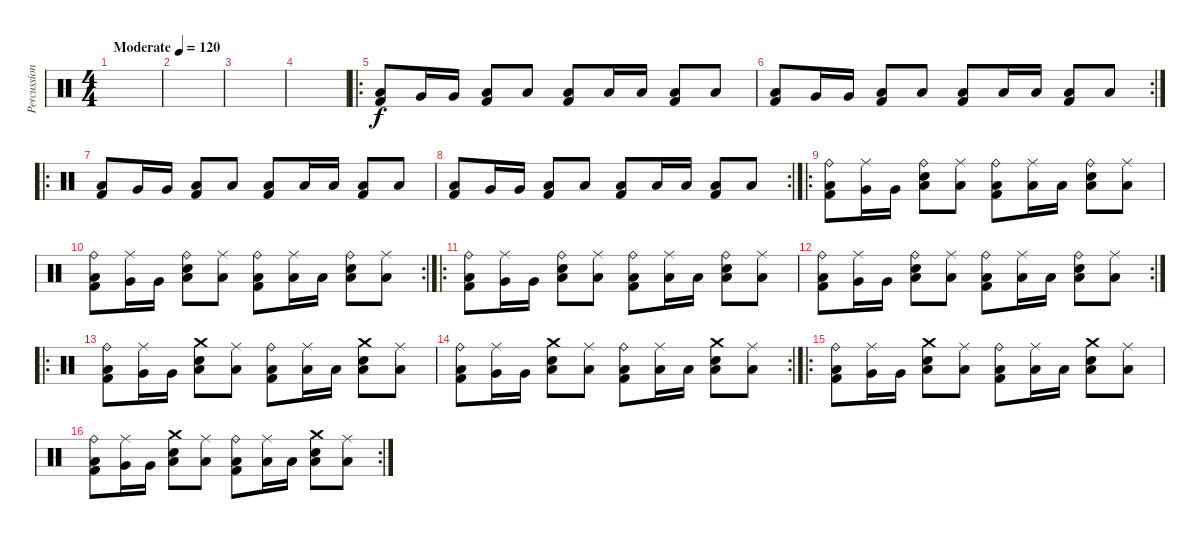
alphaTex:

\track ("Percussion" "Percussion") {instrument percussion}
\staff {score}
\articulation defaults
\ts (4 4)
\tempo (120 "Moderate")
\clef neutral
\ks c
|
|
|
|
\ro
("Low Floor Tom (hit)" "Kick (hit) 2").8 "Very Low Tom (hit)".16 "Very Low Tom (hit)".16 ("Low Floor Tom (hit)" "Kick (hit) 2").8 "Low Floor Tom (hit)".8 ("Low Floor Tom (hit)" "Kick (hit) 2").8 "Low Floor Tom (hit)".16 "Low Floor Tom (hit)".16 ("Low Floor Tom (hit)" "Kick (hit) 2").8 "Low Floor Tom (hit)".8 |
\rc 2
("Low Floor Tom (hit)" "Kick (hit) 2").8 "Very Low Tom (hit)".16 "Very Low Tom (hit)".16 ("Low Floor Tom (hit)" "Kick (hit) 2").8 "Low Floor Tom (hit)".8 ("Low Floor Tom (hit)" "Kick (hit) 2").8 "Low Floor Tom (hit)".16 "Low Floor Tom (hit)".16 ("Low Floor Tom (hit)" "Kick (hit) 2").8 "Low Floor Tom (hit)".8 |
\ro
("Low Floor Tom (hit)" "Kick (hit) 2").8 "Very Low Tom (hit)".16 "Very Low Tom (hit)".16 ("Low Floor Tom (hit)" "Kick (hit) 2").8 "Low Floor Tom (hit)".8 ("Low Floor Tom (hit)" "Kick (hit) 2").8 "Low Floor Tom (hit)".16 "Low Floor Tom (hit)".16 ("Low Floor Tom (hit)" "Kick (hit) 2").8 "Low Floor Tom (hit)".8 |
\rc 2
("Low Floor Tom (hit)" "Kick (hit) 2").8 "Very Low Tom (hit)".16 "Very Low Tom (hit)".16 ("Low Floor Tom (hit)" "Kick (hit) 2").8 "Low Floor Tom (hit)".8 ("Low Floor Tom (hit)" "Kick (hit) 2").8 "Low Floor Tom (hit)".16 "Low Floor Tom (hit)".16 ("Low Floor Tom (hit)" "Kick (hit) 2").8 "Low Floor Tom (hit)".8 |
\ro
("Ride (bell)" "Low Floor Tom (hit)" "Kick (hit) 2").8 ("Very Low Tom (hit)" "Ride (middle)").16 "Very Low Tom (hit)".16 ("Ride (bell)" "Low Floor Tom (hit)" "Snare (hit) 2").8 ("Low Floor Tom (hit)" "Ride (middle)").8 ("Ride (bell)" "Low Floor Tom (hit)" "Kick (hit) 2").8 ("Low Floor Tom (hit)" "Ride (middle)").16 "Low Floor Tom (hit)".16 ("Ride (bell)" "Low Floor Tom (hit)" "Snare (hit) 2").8 ("Low Floor Tom (hit)" "Ride (middle)").8 |
\rc 2
("Ride (bell)" "Low Floor Tom (hit)" "Kick (hit) 2").8 ("Very Low Tom (hit)" "Ride (middle)").16 "Very Low Tom (hit)".16 ("Ride (bell)" "Low Floor Tom (hit)" "Snare (hit) 2").8 ("Low Floor Tom (hit)" "Ride (middle)").8 ("Ride (bell)" "Low Floor Tom (hit)" "Kick (hit) 2").8 ("Low Floor Tom (hit)" "Ride (middle)").16 "Low Floor Tom (hit)".16 ("Ride (bell)" "Low Floor Tom (hit)" "Snare (hit) 2").8 ("Low Floor Tom (hit)" "Ride (middle)").8 |
\ro
("Ride (bell)" "Low Floor Tom (hit)" "Kick (hit) 2").8 ("Very Low Tom (hit)" "Ride (middle)").16 "Very Low Tom (hit)".16 ("Ride (bell)" "Low Floor Tom (hit)" "Snare (hit) 2").8 ("Low Floor Tom (hit)" "Ride (middle)").8 ("Ride (bell)" "Low Floor Tom (hit)" "Kick (hit) 2").8 ("Low Floor Tom (hit)" "Ride (middle)").16 "Low Floor Tom (hit)".16 ("Ride (bell)" "Low Floor Tom (hit)" "Snare (hit) 2").8 ("Low Floor Tom (hit)" "Ride (middle)").8 |
\rc 2
("Ride (bell)" "Low Floor Tom (hit)" "Kick (hit) 2").8 ("Very Low Tom (hit)" "Ride (middle)").16 "Very Low Tom (hit)".16 ("Ride (bell)" "Low Floor Tom (hit)" "Snare (hit) 2").8 ("Low Floor Tom (hit)" "Ride (middle)").8 ("Ride (bell)" "Low Floor Tom (hit)" "Kick (hit) 2").8 ("Low Floor Tom (hit)" "Ride (middle)").16 "Low Floor Tom (hit)".16 ("Ride (bell)" "Low Floor Tom (hit)" "Snare (hit) 2").8 ("Low Floor Tom (hit)" "Ride (middle)").8 |
\ro
("Ride (bell)" "Low Floor Tom (hit)" "Kick (hit) 2").8 ("Very Low Tom (hit)" "Ride (middle)").16 "Very Low Tom (hit)".16 ("Crash medium (hit)" "Low Floor Tom (hit)" "Snare (hit) 2").8 ("Low Floor Tom (hit)" "Ride (middle)").8 ("Ride (bell)" "Low Floor Tom (hit)" "Kick (hit) 2").8 ("Low Floor Tom (hit)" "Ride (middle)").16 "Low Floor Tom (hit)".16 ("Crash medium (hit)" "Low Floor Tom (hit)" "Snare (hit) 2").8 ("Low Floor Tom (hit)" "Ride (middle)").8 |
\rc 2
("Ride (bell)" "Low Floor Tom (hit)" "Kick (hit) 2").8 ("Very Low Tom (hit)" "Ride (middle)").16 "Very Low Tom (hit)".16 ("Crash medium (hit)" "Low Floor Tom (hit)" "Snare (hit) 2").8 ("Low Floor Tom (hit)" "Ride (middle)").8 ("Ride (bell)" "Low Floor Tom (hit)" "Kick (hit) 2").8 ("Low Floor Tom (hit)" "Ride (middle)").16 "Low Floor Tom (hit)".16 ("Crash medium (hit)" "Low Floor Tom (hit)" "Snare (hit) 2").8 ("Low Floor Tom (hit)" "Ride (middle)").8 |
\ro
("Ride (bell)" "Low Floor Tom (hit)" "Kick (hit) 2").8 ("Very Low Tom (hit)" "Ride (middle)").16 "Very Low Tom (hit)".16 ("Crash medium (hit)" "Low Floor Tom (hit)" "Snare (hit) 2").8 ("Low Floor Tom (hit)" "Ride (middle)").8 ("Ride (bell)" "Low Floor Tom (hit)" "Kick (hit) 2").8 ("Low Floor Tom (hit)" "Ride (middle)").16 "Low Floor Tom (hit)".16 ("Crash medium (hit)" "Low Floor Tom (hit)" "Snare (hit) 2").8 ("Low Floor Tom (hit)" "Ride (middle)").8 |
\rc 2
("Ride (bell)" "Low Floor Tom (hit)" "Kick (hit) 2").8 ("Very Low Tom (hit)" "Ride (middle)").16 "Very Low Tom (hit)".16 ("Crash medium (hit)" "Low Floor Tom (hit)" "Snare (hit) 2").8 ("Low Floor Tom (hit)" "Ride (middle)").8 ("Ride (bell)" "Low Floor Tom (hit)" "Kick (hit) 2").8 ("Low Floor Tom (hit)" "Ride (middle)").16 "Low Floor Tom (hit)".16 ("Crash medium (hit)" "Low Floor Tom (hit)" "Snare (hit) 2").8 ("Low Floor Tom (hit)" "Ride (middle)").8
